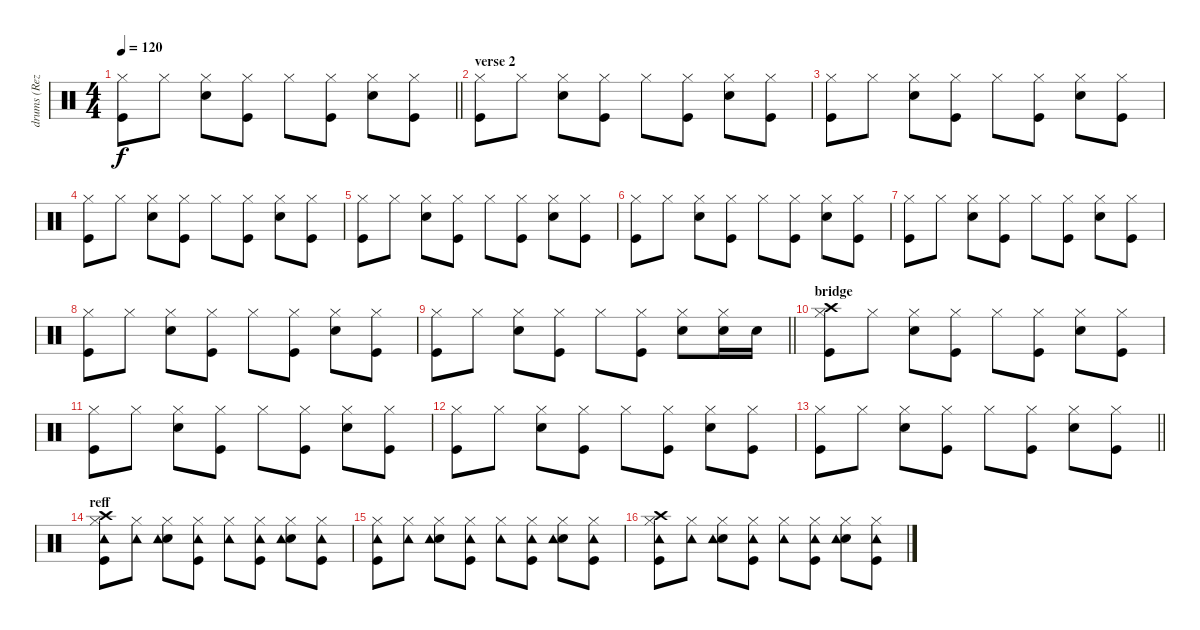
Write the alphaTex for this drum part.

\track ("drums (Reza)" "drums (Rez") {instrument percussion}
\staff {score}
\articulation defaults
\ts (4 4)
\tempo 120
\clef neutral
\barLineRight lightlight
\ks c
("Hi-Hat (closed)" "Kick (hit)").8{dy f} "Hi-Hat (closed)".8 ("Hi-Hat (closed)" "Snare (hit) 2").8 ("Hi-Hat (closed)" "Kick (hit)").8 "Hi-Hat (closed)".8 ("Hi-Hat (closed)" "Kick (hit)").8 ("Hi-Hat (closed)" "Snare (hit) 2").8 ("Hi-Hat (closed)" "Kick (hit)").8 |
\section ("" "verse 2")
("Hi-Hat (closed)" "Kick (hit)").8 "Hi-Hat (closed)".8 ("Hi-Hat (closed)" "Snare (hit) 2").8 ("Hi-Hat (closed)" "Kick (hit)").8 "Hi-Hat (closed)".8 ("Hi-Hat (closed)" "Kick (hit)").8 ("Hi-Hat (closed)" "Snare (hit) 2").8 ("Hi-Hat (closed)" "Kick (hit)").8 |
("Hi-Hat (closed)" "Kick (hit)").8 "Hi-Hat (closed)".8 ("Hi-Hat (closed)" "Snare (hit) 2").8 ("Hi-Hat (closed)" "Kick (hit)").8 "Hi-Hat (closed)".8 ("Hi-Hat (closed)" "Kick (hit)").8 ("Hi-Hat (closed)" "Snare (hit) 2").8 ("Hi-Hat (closed)" "Kick (hit)").8 |
("Hi-Hat (closed)" "Kick (hit)").8 "Hi-Hat (closed)".8 ("Hi-Hat (closed)" "Snare (hit) 2").8 ("Hi-Hat (closed)" "Kick (hit)").8 "Hi-Hat (closed)".8 ("Hi-Hat (closed)" "Kick (hit)").8 ("Hi-Hat (closed)" "Snare (hit) 2").8 ("Hi-Hat (closed)" "Kick (hit)").8 |
("Hi-Hat (closed)" "Kick (hit)").8 "Hi-Hat (closed)".8 ("Hi-Hat (closed)" "Snare (hit) 2").8 ("Hi-Hat (closed)" "Kick (hit)").8 "Hi-Hat (closed)".8 ("Hi-Hat (closed)" "Kick (hit)").8 ("Hi-Hat (closed)" "Snare (hit) 2").8 ("Hi-Hat (closed)" "Kick (hit)").8 |
("Hi-Hat (closed)" "Kick (hit)").8 "Hi-Hat (closed)".8 ("Hi-Hat (closed)" "Snare (hit) 2").8 ("Hi-Hat (closed)" "Kick (hit)").8 "Hi-Hat (closed)".8 ("Hi-Hat (closed)" "Kick (hit)").8 ("Hi-Hat (closed)" "Snare (hit) 2").8 ("Hi-Hat (closed)" "Kick (hit)").8 |
("Hi-Hat (closed)" "Kick (hit)").8 "Hi-Hat (closed)".8 ("Hi-Hat (closed)" "Snare (hit) 2").8 ("Hi-Hat (closed)" "Kick (hit)").8 "Hi-Hat (closed)".8 ("Hi-Hat (closed)" "Kick (hit)").8 ("Hi-Hat (closed)" "Snare (hit) 2").8 ("Hi-Hat (closed)" "Kick (hit)").8 |
("Hi-Hat (closed)" "Kick (hit)").8 "Hi-Hat (closed)".8 ("Hi-Hat (closed)" "Snare (hit) 2").8 ("Hi-Hat (closed)" "Kick (hit)").8 "Hi-Hat (closed)".8 ("Hi-Hat (closed)" "Kick (hit)").8 ("Hi-Hat (closed)" "Snare (hit) 2").8 ("Hi-Hat (closed)" "Kick (hit)").8 |
\barLineRight lightlight
("Hi-Hat (closed)" "Kick (hit)").8 "Hi-Hat (closed)".8 ("Hi-Hat (closed)" "Snare (hit) 2").8 ("Hi-Hat (closed)" "Kick (hit)").8 "Hi-Hat (closed)".8 ("Hi-Hat (closed)" "Kick (hit)").8 ("Hi-Hat (closed)" "Snare (hit) 2").8 ("Hi-Hat (closed)" "Snare (hit) 2").16 "Snare (hit) 2".16 |
\section ("" "bridge")
("Hi-Hat (closed)" "Kick (hit)" "Crash high (hit)").8 "Hi-Hat (closed)".8 ("Hi-Hat (closed)" "Snare (hit) 2").8 ("Hi-Hat (closed)" "Kick (hit)").8 "Hi-Hat (closed)".8 ("Hi-Hat (closed)" "Kick (hit)").8 ("Hi-Hat (closed)" "Snare (hit) 2").8 ("Hi-Hat (closed)" "Kick (hit)").8 |
("Hi-Hat (closed)" "Kick (hit)").8 "Hi-Hat (closed)".8 ("Hi-Hat (closed)" "Snare (hit) 2").8 ("Hi-Hat (closed)" "Kick (hit)").8 "Hi-Hat (closed)".8 ("Hi-Hat (closed)" "Kick (hit)").8 ("Hi-Hat (closed)" "Snare (hit) 2").8 ("Hi-Hat (closed)" "Kick (hit)").8 |
("Hi-Hat (closed)" "Kick (hit)").8 "Hi-Hat (closed)".8 ("Hi-Hat (closed)" "Snare (hit) 2").8 ("Hi-Hat (closed)" "Kick (hit)").8 "Hi-Hat (closed)".8 ("Hi-Hat (closed)" "Kick (hit)").8 ("Hi-Hat (closed)" "Snare (hit) 2").8 ("Hi-Hat (closed)" "Kick (hit)").8 |
\barLineRight lightlight
("Hi-Hat (closed)" "Kick (hit)").8 "Hi-Hat (closed)".8 ("Hi-Hat (closed)" "Snare (hit) 2").8 ("Hi-Hat (closed)" "Kick (hit)").8 "Hi-Hat (closed)".8 ("Hi-Hat (closed)" "Kick (hit)").8 ("Hi-Hat (closed)" "Snare (hit) 2").8 ("Hi-Hat (closed)" "Kick (hit)").8 |
\section ("" "reff ")
("Hi-Hat (closed)" "Kick (hit)" "Crash high (hit)" "Tambourine (hit)").8 ("Hi-Hat (closed)" "Tambourine (hit)").8 ("Hi-Hat (closed)" "Snare (hit) 2" "Tambourine (hit)").8 ("Hi-Hat (closed)" "Kick (hit)" "Tambourine (hit)").8 ("Hi-Hat (closed)" "Tambourine (hit)").8 ("Hi-Hat (closed)" "Kick (hit)" "Tambourine (hit)").8 ("Hi-Hat (closed)" "Snare (hit) 2" "Tambourine (hit)").8 ("Hi-Hat (closed)" "Kick (hit)" "Tambourine (hit)").8 |
("Hi-Hat (closed)" "Kick (hit)" "Tambourine (hit)").8 ("Hi-Hat (closed)" "Tambourine (hit)").8 ("Hi-Hat (closed)" "Snare (hit) 2" "Tambourine (hit)").8 ("Hi-Hat (closed)" "Kick (hit)" "Tambourine (hit)").8 ("Hi-Hat (closed)" "Tambourine (hit)").8 ("Hi-Hat (closed)" "Kick (hit)" "Tambourine (hit)").8 ("Hi-Hat (closed)" "Snare (hit) 2" "Tambourine (hit)").8 ("Hi-Hat (closed)" "Kick (hit)" "Tambourine (hit)").8 |
("Hi-Hat (closed)" "Kick (hit)" "Crash high (hit)" "Tambourine (hit)").8 ("Hi-Hat (closed)" "Tambourine (hit)").8 ("Hi-Hat (closed)" "Snare (hit) 2" "Tambourine (hit)").8 ("Hi-Hat (closed)" "Kick (hit)" "Tambourine (hit)").8 ("Hi-Hat (closed)" "Tambourine (hit)").8 ("Hi-Hat (closed)" "Kick (hit)" "Tambourine (hit)").8 ("Hi-Hat (closed)" "Snare (hit) 2" "Tambourine (hit)").8 ("Hi-Hat (closed)" "Kick (hit)" "Tambourine (hit)").8
